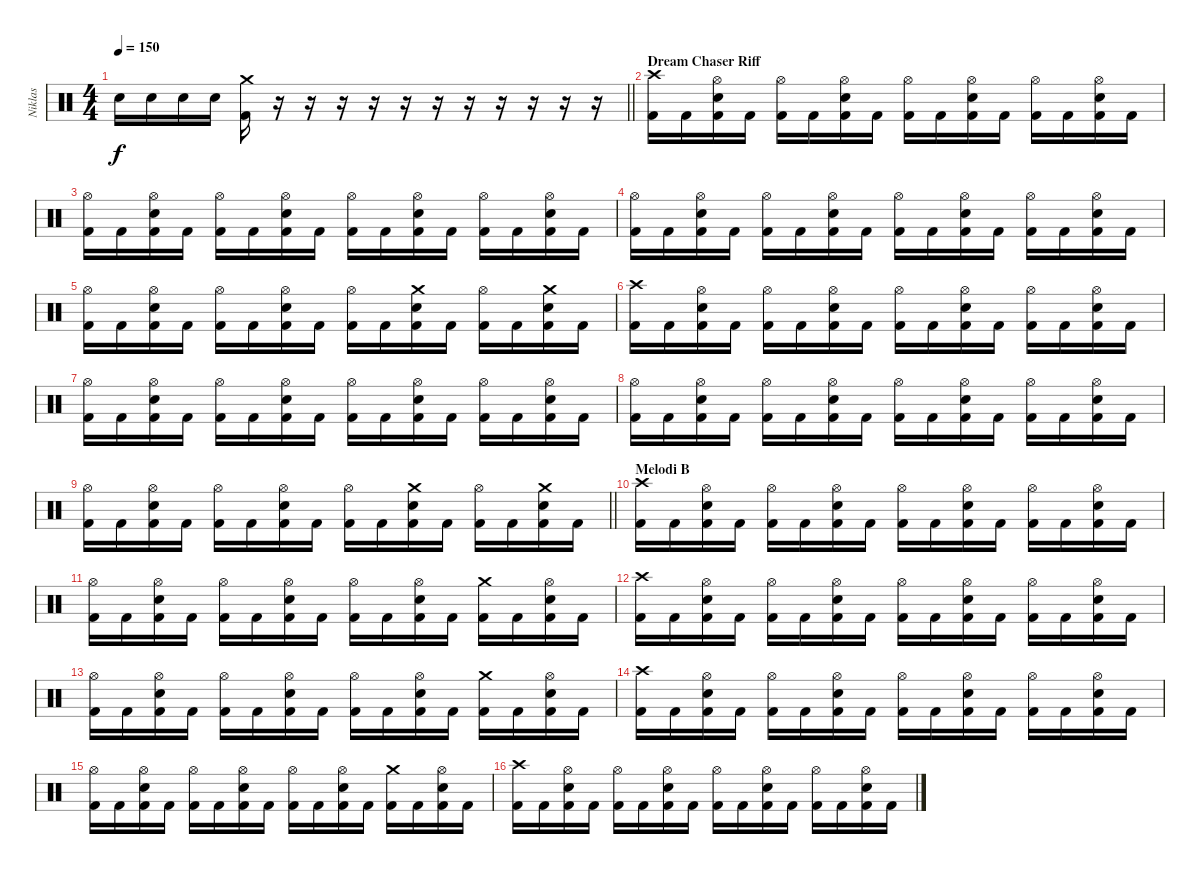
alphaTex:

\track ("Niklas" "Niklas") {instrument percussion}
\staff {score}
\articulation defaults
\ts (4 4)
\tempo 150
\clef neutral
\barLineRight lightlight
\ks c "Electric Snare (hit)".16{dy f} "Electric Snare (hit)".16 "Electric Snare (hit)".16 "Electric Snare (hit)".16
("Crash medium (hit)" "Kick (hit) 2").16 r.16 r.16 r.16 r.16 r.16 r.16 r.16 r.16 r.16 r.16 r.16 |
\section ("" "Dream Chaser Riff")
("Crash high (hit)" "Kick (hit) 2").16 "Kick (hit) 2".16 ("Hi-Hat (open)" "Electric Snare (hit)" "Kick (hit) 2").16 "Kick (hit) 2".16 ("Hi-Hat (open)" "Kick (hit) 2").16 "Kick (hit) 2".16 ("Hi-Hat (open)" "Electric Snare (hit)" "Kick (hit) 2").16 "Kick (hit) 2".16 ("Hi-Hat (open)" "Kick (hit) 2").16 "Kick (hit) 2".16 ("Hi-Hat (open)" "Electric Snare (hit)" "Kick (hit) 2").16 "Kick (hit) 2".16 ("Hi-Hat (open)" "Kick (hit) 2").16 "Kick (hit) 2".16 ("Hi-Hat (open)" "Electric Snare (hit)" "Kick (hit) 2").16 "Kick (hit) 2".16 |
("Hi-Hat (open)" "Kick (hit) 2").16 "Kick (hit) 2".16 ("Hi-Hat (open)" "Electric Snare (hit)" "Kick (hit) 2").16 "Kick (hit) 2".16 ("Hi-Hat (open)" "Kick (hit) 2").16 "Kick (hit) 2".16 ("Hi-Hat (open)" "Electric Snare (hit)" "Kick (hit) 2").16 "Kick (hit) 2".16 ("Hi-Hat (open)" "Kick (hit) 2").16 "Kick (hit) 2".16 ("Hi-Hat (open)" "Electric Snare (hit)" "Kick (hit) 2").16 "Kick (hit) 2".16 ("Hi-Hat (open)" "Kick (hit) 2").16 "Kick (hit) 2".16 ("Hi-Hat (open)" "Electric Snare (hit)" "Kick (hit) 2").16 "Kick (hit) 2".16 |
("Hi-Hat (open)" "Kick (hit) 2").16 "Kick (hit) 2".16 ("Hi-Hat (open)" "Electric Snare (hit)" "Kick (hit) 2").16 "Kick (hit) 2".16 ("Hi-Hat (open)" "Kick (hit) 2").16 "Kick (hit) 2".16 ("Hi-Hat (open)" "Electric Snare (hit)" "Kick (hit) 2").16 "Kick (hit) 2".16 ("Hi-Hat (open)" "Kick (hit) 2").16 "Kick (hit) 2".16 ("Hi-Hat (open)" "Electric Snare (hit)" "Kick (hit) 2").16 "Kick (hit) 2".16 ("Hi-Hat (open)" "Kick (hit) 2").16 "Kick (hit) 2".16 ("Hi-Hat (open)" "Electric Snare (hit)" "Kick (hit) 2").16 "Kick (hit) 2".16 |
("Hi-Hat (open)" "Kick (hit) 2").16 "Kick (hit) 2".16 ("Hi-Hat (open)" "Electric Snare (hit)" "Kick (hit) 2").16 "Kick (hit) 2".16 ("Hi-Hat (open)" "Kick (hit) 2").16 "Kick (hit) 2".16 ("Hi-Hat (open)" "Electric Snare (hit)" "Kick (hit) 2").16 "Kick (hit) 2".16 ("Hi-Hat (open)" "Kick (hit) 2").16 "Kick (hit) 2".16 ("Crash medium (hit)" "Electric Snare (hit)" "Kick (hit) 2").16 "Kick (hit) 2".16 ("Hi-Hat (open)" "Kick (hit) 2").16 "Kick (hit) 2".16 ("Crash medium (hit)" "Electric Snare (hit)" "Kick (hit) 2").16 "Kick (hit) 2".16 |
("Crash high (hit)" "Kick (hit) 2").16 "Kick (hit) 2".16 ("Hi-Hat (open)" "Electric Snare (hit)" "Kick (hit) 2").16 "Kick (hit) 2".16 ("Hi-Hat (open)" "Kick (hit) 2").16 "Kick (hit) 2".16 ("Hi-Hat (open)" "Electric Snare (hit)" "Kick (hit) 2").16 "Kick (hit) 2".16 ("Hi-Hat (open)" "Kick (hit) 2").16 "Kick (hit) 2".16 ("Hi-Hat (open)" "Electric Snare (hit)" "Kick (hit) 2").16 "Kick (hit) 2".16 ("Hi-Hat (open)" "Kick (hit) 2").16 "Kick (hit) 2".16 ("Hi-Hat (open)" "Electric Snare (hit)" "Kick (hit) 2").16 "Kick (hit) 2".16 |
("Hi-Hat (open)" "Kick (hit) 2").16 "Kick (hit) 2".16 ("Hi-Hat (open)" "Electric Snare (hit)" "Kick (hit) 2").16 "Kick (hit) 2".16 ("Hi-Hat (open)" "Kick (hit) 2").16 "Kick (hit) 2".16 ("Hi-Hat (open)" "Electric Snare (hit)" "Kick (hit) 2").16 "Kick (hit) 2".16 ("Hi-Hat (open)" "Kick (hit) 2").16 "Kick (hit) 2".16 ("Hi-Hat (open)" "Electric Snare (hit)" "Kick (hit) 2").16 "Kick (hit) 2".16 ("Hi-Hat (open)" "Kick (hit) 2").16 "Kick (hit) 2".16 ("Hi-Hat (open)" "Electric Snare (hit)" "Kick (hit) 2").16 "Kick (hit) 2".16 |
("Hi-Hat (open)" "Kick (hit) 2").16 "Kick (hit) 2".16 ("Hi-Hat (open)" "Electric Snare (hit)" "Kick (hit) 2").16 "Kick (hit) 2".16 ("Hi-Hat (open)" "Kick (hit) 2").16 "Kick (hit) 2".16 ("Hi-Hat (open)" "Electric Snare (hit)" "Kick (hit) 2").16 "Kick (hit) 2".16 ("Hi-Hat (open)" "Kick (hit) 2").16 "Kick (hit) 2".16 ("Hi-Hat (open)" "Electric Snare (hit)" "Kick (hit) 2").16 "Kick (hit) 2".16 ("Hi-Hat (open)" "Kick (hit) 2").16 "Kick (hit) 2".16 ("Hi-Hat (open)" "Electric Snare (hit)" "Kick (hit) 2").16 "Kick (hit) 2".16 |
\barLineRight lightlight
("Hi-Hat (open)" "Kick (hit) 2").16 "Kick (hit) 2".16 ("Hi-Hat (open)" "Electric Snare (hit)" "Kick (hit) 2").16 "Kick (hit) 2".16 ("Hi-Hat (open)" "Kick (hit) 2").16 "Kick (hit) 2".16 ("Hi-Hat (open)" "Electric Snare (hit)" "Kick (hit) 2").16 "Kick (hit) 2".16 ("Hi-Hat (open)" "Kick (hit) 2").16 "Kick (hit) 2".16 ("Crash medium (hit)" "Electric Snare (hit)" "Kick (hit) 2").16 "Kick (hit) 2".16 ("Hi-Hat (open)" "Kick (hit) 2").16 "Kick (hit) 2".16 ("Crash medium (hit)" "Electric Snare (hit)" "Kick (hit) 2").16 "Kick (hit) 2".16 |
\section ("" "Melodi B")
("Crash high (hit)" "Kick (hit) 2").16 "Kick (hit) 2".16 ("Hi-Hat (open)" "Electric Snare (hit)" "Kick (hit) 2").16 "Kick (hit) 2".16 ("Hi-Hat (open)" "Kick (hit) 2").16 "Kick (hit) 2".16 ("Hi-Hat (open)" "Electric Snare (hit)" "Kick (hit) 2").16 "Kick (hit) 2".16 ("Hi-Hat (open)" "Kick (hit) 2").16 "Kick (hit) 2".16 ("Hi-Hat (open)" "Electric Snare (hit)" "Kick (hit) 2").16 "Kick (hit) 2".16 ("Hi-Hat (open)" "Kick (hit) 2").16 "Kick (hit) 2".16 ("Hi-Hat (open)" "Electric Snare (hit)" "Kick (hit) 2").16 "Kick (hit) 2".16 |
("Hi-Hat (open)" "Kick (hit) 2").16 "Kick (hit) 2".16 ("Hi-Hat (open)" "Electric Snare (hit)" "Kick (hit) 2").16 "Kick (hit) 2".16 ("Hi-Hat (open)" "Kick (hit) 2").16 "Kick (hit) 2".16 ("Hi-Hat (open)" "Electric Snare (hit)" "Kick (hit) 2").16 "Kick (hit) 2".16 ("Hi-Hat (open)" "Kick (hit) 2").16 "Kick (hit) 2".16 ("Hi-Hat (open)" "Electric Snare (hit)" "Kick (hit) 2").16 "Kick (hit) 2".16 ("Crash medium (hit)" "Kick (hit) 2").16 "Kick (hit) 2".16 ("Hi-Hat (open)" "Electric Snare (hit)" "Kick (hit) 2").16 "Kick (hit) 2".16 |
("Crash high (hit)" "Kick (hit) 2").16 "Kick (hit) 2".16 ("Hi-Hat (open)" "Electric Snare (hit)" "Kick (hit) 2").16 "Kick (hit) 2".16 ("Hi-Hat (open)" "Kick (hit) 2").16 "Kick (hit) 2".16 ("Hi-Hat (open)" "Electric Snare (hit)" "Kick (hit) 2").16 "Kick (hit) 2".16 ("Hi-Hat (open)" "Kick (hit) 2").16 "Kick (hit) 2".16 ("Hi-Hat (open)" "Electric Snare (hit)" "Kick (hit) 2").16 "Kick (hit) 2".16 ("Hi-Hat (open)" "Kick (hit) 2").16 "Kick (hit) 2".16 ("Hi-Hat (open)" "Electric Snare (hit)" "Kick (hit) 2").16 "Kick (hit) 2".16 |
("Hi-Hat (open)" "Kick (hit) 2").16 "Kick (hit) 2".16 ("Hi-Hat (open)" "Electric Snare (hit)" "Kick (hit) 2").16 "Kick (hit) 2".16 ("Hi-Hat (open)" "Kick (hit) 2").16 "Kick (hit) 2".16 ("Hi-Hat (open)" "Electric Snare (hit)" "Kick (hit) 2").16 "Kick (hit) 2".16 ("Hi-Hat (open)" "Kick (hit) 2").16 "Kick (hit) 2".16 ("Hi-Hat (open)" "Electric Snare (hit)" "Kick (hit) 2").16 "Kick (hit) 2".16 ("Crash medium (hit)" "Kick (hit) 2").16 "Kick (hit) 2".16 ("Hi-Hat (open)" "Electric Snare (hit)" "Kick (hit) 2").16 "Kick (hit) 2".16 |
("Crash high (hit)" "Kick (hit) 2").16 "Kick (hit) 2".16 ("Hi-Hat (open)" "Electric Snare (hit)" "Kick (hit) 2").16 "Kick (hit) 2".16 ("Hi-Hat (open)" "Kick (hit) 2").16 "Kick (hit) 2".16 ("Hi-Hat (open)" "Electric Snare (hit)" "Kick (hit) 2").16 "Kick (hit) 2".16 ("Hi-Hat (open)" "Kick (hit) 2").16 "Kick (hit) 2".16 ("Hi-Hat (open)" "Electric Snare (hit)" "Kick (hit) 2").16 "Kick (hit) 2".16 ("Hi-Hat (open)" "Kick (hit) 2").16 "Kick (hit) 2".16 ("Hi-Hat (open)" "Electric Snare (hit)" "Kick (hit) 2").16 "Kick (hit) 2".16 |
("Hi-Hat (open)" "Kick (hit) 2").16 "Kick (hit) 2".16 ("Hi-Hat (open)" "Electric Snare (hit)" "Kick (hit) 2").16 "Kick (hit) 2".16 ("Hi-Hat (open)" "Kick (hit) 2").16 "Kick (hit) 2".16 ("Hi-Hat (open)" "Electric Snare (hit)" "Kick (hit) 2").16 "Kick (hit) 2".16 ("Hi-Hat (open)" "Kick (hit) 2").16 "Kick (hit) 2".16 ("Hi-Hat (open)" "Electric Snare (hit)" "Kick (hit) 2").16 "Kick (hit) 2".16 ("Crash medium (hit)" "Kick (hit) 2").16 "Kick (hit) 2".16 ("Hi-Hat (open)" "Electric Snare (hit)" "Kick (hit) 2").16 "Kick (hit) 2".16 |
("Crash high (hit)" "Kick (hit) 2").16 "Kick (hit) 2".16 ("Hi-Hat (open)" "Electric Snare (hit)" "Kick (hit) 2").16 "Kick (hit) 2".16 ("Hi-Hat (open)" "Kick (hit) 2").16 "Kick (hit) 2".16 ("Hi-Hat (open)" "Electric Snare (hit)" "Kick (hit) 2").16 "Kick (hit) 2".16 ("Hi-Hat (open)" "Kick (hit) 2").16 "Kick (hit) 2".16 ("Hi-Hat (open)" "Electric Snare (hit)" "Kick (hit) 2").16 "Kick (hit) 2".16 ("Hi-Hat (open)" "Kick (hit) 2").16 "Kick (hit) 2".16 ("Hi-Hat (open)" "Electric Snare (hit)" "Kick (hit) 2").16 "Kick (hit) 2".16
